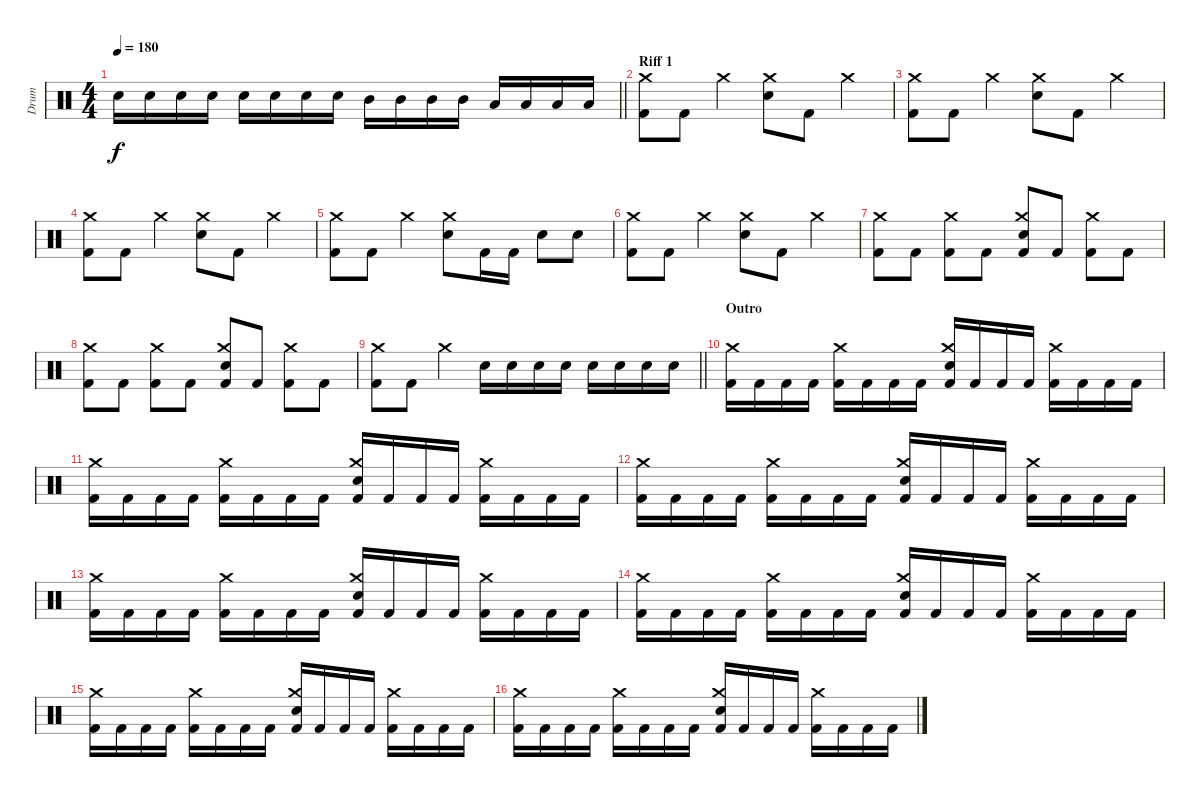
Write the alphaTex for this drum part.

\track ("Drum" "Drum") {instrument percussion}
\staff
\articulation defaults
\ts (4 4)
\tempo 180
\clef neutral
\barLineRight lightlight
\ks c "Electric Snare (hit)".16{dy f} "Electric Snare (hit)".16 "Electric Snare (hit)".16 "Electric Snare (hit)".16 "Electric Snare (hit)".16 "Electric Snare (hit)".16 "Electric Snare (hit)".16 "Electric Snare (hit)".16 "Mid Tom (hit)".16 "Mid Tom (hit)".16 "Mid Tom (hit)".16 "Mid Tom (hit)".16 "Low Tom (hit)".16 "Low Tom (hit)".16 "Low Tom (hit)".16 "Low Tom (hit)".16
|
\section ("" "Riff 1")
("Crash medium (hit)" "Kick (hit) 2").8 "Kick (hit) 2".8 "Crash medium (hit)".4 ("Crash medium (hit)" "Electric Snare (hit)").8 "Kick (hit) 2".8 "Crash medium (hit)".4 |
("Crash medium (hit)" "Kick (hit) 2").8 "Kick (hit) 2".8 "Crash medium (hit)".4 ("Crash medium (hit)" "Electric Snare (hit)").8 "Kick (hit) 2".8 "Crash medium (hit)".4 |
("Crash medium (hit)" "Kick (hit) 2").8 "Kick (hit) 2".8 "Crash medium (hit)".4 ("Crash medium (hit)" "Electric Snare (hit)").8 "Kick (hit) 2".8 "Crash medium (hit)".4 |
("Crash medium (hit)" "Kick (hit) 2").8 "Kick (hit) 2".8 "Crash medium (hit)".4 ("Crash medium (hit)" "Electric Snare (hit)").8 "Kick (hit) 2".16 "Kick (hit) 2".16 "Electric Snare (hit)".8 "Electric Snare (hit)".8 |
("Crash medium (hit)" "Kick (hit) 2").8 "Kick (hit) 2".8 "Crash medium (hit)".4 ("Crash medium (hit)" "Electric Snare (hit)").8 "Kick (hit) 2".8 "Crash medium (hit)".4 |
("Crash medium (hit)" "Kick (hit) 2").8 "Kick (hit) 2".8 ("Crash medium (hit)" "Kick (hit) 2").8 "Kick (hit) 2".8 ("Crash medium (hit)" "Electric Snare (hit)" "Kick (hit) 2").8 "Kick (hit) 2".8 ("Crash medium (hit)" "Kick (hit) 2").8 "Kick (hit) 2".8 |
("Crash medium (hit)" "Kick (hit) 2").8 "Kick (hit) 2".8 ("Crash medium (hit)" "Kick (hit) 2").8 "Kick (hit) 2".8 ("Crash medium (hit)" "Electric Snare (hit)" "Kick (hit) 2").8 "Kick (hit) 2".8 ("Crash medium (hit)" "Kick (hit) 2").8 "Kick (hit) 2".8 |
\barLineRight lightlight
("Crash medium (hit)" "Kick (hit) 2").8 "Kick (hit) 2".8 "Crash medium (hit)".4 "Electric Snare (hit)".16 "Electric Snare (hit)".16 "Electric Snare (hit)".16 "Electric Snare (hit)".16 "Electric Snare (hit)".16 "Electric Snare (hit)".16 "Electric Snare (hit)".16 "Electric Snare (hit)".16 |
\section ("" "Outro")
("Crash medium (hit)" "Kick (hit) 2").16 "Kick (hit) 2".16 "Kick (hit) 2".16 "Kick (hit) 2".16 ("Crash medium (hit)" "Kick (hit) 2").16 "Kick (hit) 2".16 "Kick (hit) 2".16 "Kick (hit) 2".16 ("Crash medium (hit)" "Electric Snare (hit)" "Kick (hit) 2").16 "Kick (hit) 2".16 "Kick (hit) 2".16 "Kick (hit) 2".16 ("Crash medium (hit)" "Kick (hit) 2").16 "Kick (hit) 2".16 "Kick (hit) 2".16 "Kick (hit) 2".16 |
("Crash medium (hit)" "Kick (hit) 2").16 "Kick (hit) 2".16 "Kick (hit) 2".16 "Kick (hit) 2".16 ("Crash medium (hit)" "Kick (hit) 2").16 "Kick (hit) 2".16 "Kick (hit) 2".16 "Kick (hit) 2".16 ("Crash medium (hit)" "Electric Snare (hit)" "Kick (hit) 2").16 "Kick (hit) 2".16 "Kick (hit) 2".16 "Kick (hit) 2".16 ("Crash medium (hit)" "Kick (hit) 2").16 "Kick (hit) 2".16 "Kick (hit) 2".16 "Kick (hit) 2".16 |
("Crash medium (hit)" "Kick (hit) 2").16 "Kick (hit) 2".16 "Kick (hit) 2".16 "Kick (hit) 2".16 ("Crash medium (hit)" "Kick (hit) 2").16 "Kick (hit) 2".16 "Kick (hit) 2".16 "Kick (hit) 2".16 ("Crash medium (hit)" "Electric Snare (hit)" "Kick (hit) 2").16 "Kick (hit) 2".16 "Kick (hit) 2".16 "Kick (hit) 2".16 ("Crash medium (hit)" "Kick (hit) 2").16 "Kick (hit) 2".16 "Kick (hit) 2".16 "Kick (hit) 2".16 |
("Crash medium (hit)" "Kick (hit) 2").16 "Kick (hit) 2".16 "Kick (hit) 2".16 "Kick (hit) 2".16 ("Crash medium (hit)" "Kick (hit) 2").16 "Kick (hit) 2".16 "Kick (hit) 2".16 "Kick (hit) 2".16 ("Crash medium (hit)" "Electric Snare (hit)" "Kick (hit) 2").16 "Kick (hit) 2".16 "Kick (hit) 2".16 "Kick (hit) 2".16 ("Crash medium (hit)" "Kick (hit) 2").16 "Kick (hit) 2".16 "Kick (hit) 2".16 "Kick (hit) 2".16 |
("Crash medium (hit)" "Kick (hit) 2").16 "Kick (hit) 2".16 "Kick (hit) 2".16 "Kick (hit) 2".16 ("Crash medium (hit)" "Kick (hit) 2").16 "Kick (hit) 2".16 "Kick (hit) 2".16 "Kick (hit) 2".16 ("Crash medium (hit)" "Electric Snare (hit)" "Kick (hit) 2").16 "Kick (hit) 2".16 "Kick (hit) 2".16 "Kick (hit) 2".16 ("Crash medium (hit)" "Kick (hit) 2").16 "Kick (hit) 2".16 "Kick (hit) 2".16 "Kick (hit) 2".16 |
("Crash medium (hit)" "Kick (hit) 2").16 "Kick (hit) 2".16 "Kick (hit) 2".16 "Kick (hit) 2".16 ("Crash medium (hit)" "Kick (hit) 2").16 "Kick (hit) 2".16 "Kick (hit) 2".16 "Kick (hit) 2".16 ("Crash medium (hit)" "Electric Snare (hit)" "Kick (hit) 2").16 "Kick (hit) 2".16 "Kick (hit) 2".16 "Kick (hit) 2".16 ("Crash medium (hit)" "Kick (hit) 2").16 "Kick (hit) 2".16 "Kick (hit) 2".16 "Kick (hit) 2".16 |
("Crash medium (hit)" "Kick (hit) 2").16 "Kick (hit) 2".16 "Kick (hit) 2".16 "Kick (hit) 2".16 ("Crash medium (hit)" "Kick (hit) 2").16 "Kick (hit) 2".16 "Kick (hit) 2".16 "Kick (hit) 2".16 ("Crash medium (hit)" "Electric Snare (hit)" "Kick (hit) 2").16 "Kick (hit) 2".16 "Kick (hit) 2".16 "Kick (hit) 2".16 ("Crash medium (hit)" "Kick (hit) 2").16 "Kick (hit) 2".16 "Kick (hit) 2".16 "Kick (hit) 2".16
